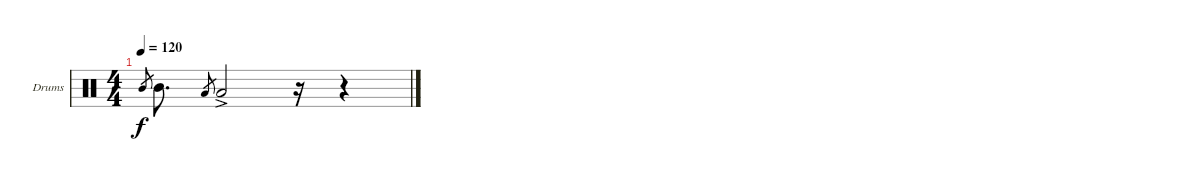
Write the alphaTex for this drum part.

\defaultSystemsLayout 4
\bracketExtendMode groupsimilarinstruments
\firstSystemTrackNameOrientation horizontal
\otherSystemsTrackNameOrientation horizontal
\track ("Drumkit" "Drums") {instrument percussion}
\staff {score}
\articulation defaults
\ts (4 4)
\tempo 120
\clef neutral
\ks c "Mid Tom (hit)".8{gr dy f} "Mid Tom (hit)".8{d} "Low Tom (hit)".8{gr} "Low Tom (hit)"{ac}.2
r.16 r.4
